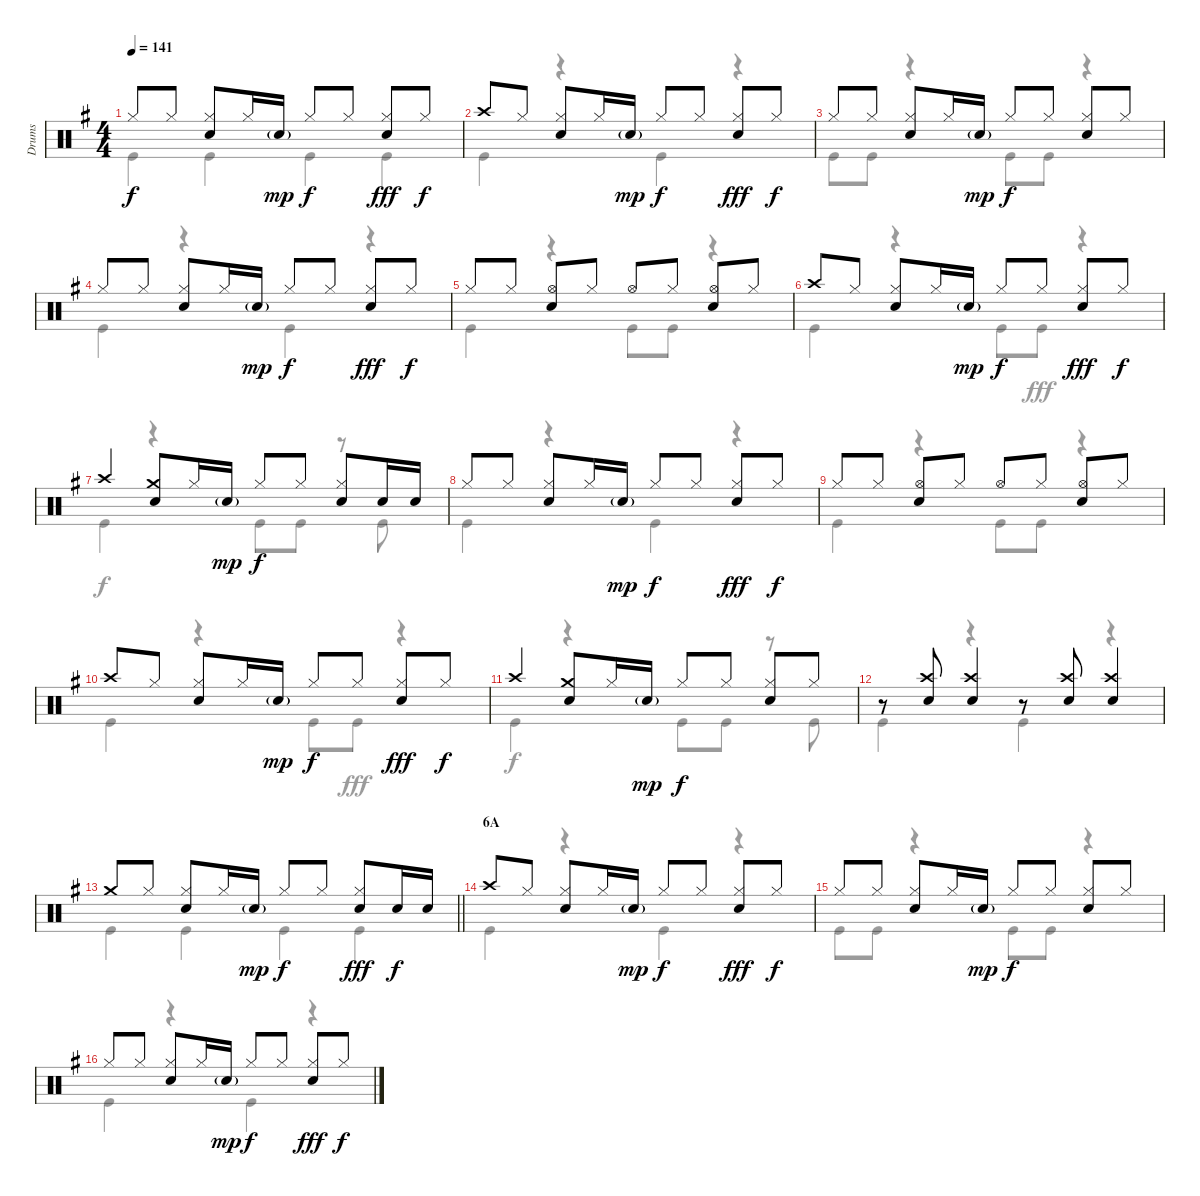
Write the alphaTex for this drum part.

\track ("Drums" "Drums") {instrument percussion}
\staff {score}
\articulation defaults
\voice
\ts (4 4)
\tempo 141
\clef neutral
\ks g "Hi-Hat (closed)".8{dy f} "Hi-Hat (closed)".8
("Hi-Hat (closed)" "Snare (hit) 2").8 "Hi-Hat (closed)".16 "Snare (hit) 2"{g}.16{dy mp} "Hi-Hat (closed)".8{dy f} "Hi-Hat (closed)".8 ("Hi-Hat (closed)" "Snare (hit) 2").8{dy fff} "Hi-Hat (closed)".8{dy f} |
"Crash high (hit)".8 "Hi-Hat (closed)".8 ("Hi-Hat (closed)" "Snare (hit) 2").8 "Hi-Hat (closed)".16 "Snare (hit) 2"{g}.16{dy mp} "Hi-Hat (closed)".8{dy f} "Hi-Hat (closed)".8 ("Hi-Hat (closed)" "Snare (hit) 2").8{dy fff} "Hi-Hat (closed)".8{dy f} |
"Hi-Hat (closed)".8 "Hi-Hat (closed)".8 ("Hi-Hat (closed)" "Snare (hit) 2").8 "Hi-Hat (closed)".16 "Snare (hit) 2"{g}.16{dy mp} "Hi-Hat (closed)".8{dy f} "Hi-Hat (closed)".8 ("Hi-Hat (closed)" "Snare (hit) 2").8 "Hi-Hat (closed)".8 |
"Hi-Hat (closed)".8 "Hi-Hat (closed)".8 ("Hi-Hat (closed)" "Snare (hit) 2").8 "Hi-Hat (closed)".16 "Snare (hit) 2"{g}.16{dy mp} "Hi-Hat (closed)".8{dy f} "Hi-Hat (closed)".8 ("Hi-Hat (closed)" "Snare (hit) 2").8{dy fff} "Hi-Hat (closed)".8{dy f} |
"Hi-Hat (closed)".8 "Hi-Hat (closed)".8 ("Hi-Hat (open)" "Snare (hit) 2").8 "Hi-Hat (closed)".8 "Hi-Hat (open)".8 "Hi-Hat (closed)".8 ("Hi-Hat (open)" "Snare (hit) 2").8 "Hi-Hat (closed)".8 |
"Crash high (hit)".8 "Hi-Hat (closed)".8 ("Hi-Hat (closed)" "Snare (hit) 2").8 "Hi-Hat (closed)".16 "Snare (hit) 2"{g}.16{dy mp} "Hi-Hat (closed)".8{dy f} "Hi-Hat (closed)".8 ("Hi-Hat (closed)" "Snare (hit) 2").8{dy fff} "Hi-Hat (closed)".8{dy f} |
"Crash high (hit)".4 ("Crash medium (hit)" "Snare (hit) 2").8 "Hi-Hat (closed)".16 "Snare (hit) 2"{g}.16{dy mp} "Hi-Hat (closed)".8{dy f} "Hi-Hat (closed)".8 ("Hi-Hat (closed)" "Snare (hit) 2").8 "Snare (hit) 2".16 "Snare (hit) 2".16 |
"Hi-Hat (closed)".8 "Hi-Hat (closed)".8 ("Hi-Hat (closed)" "Snare (hit) 2").8 "Hi-Hat (closed)".16 "Snare (hit) 2"{g}.16{dy mp} "Hi-Hat (closed)".8{dy f} "Hi-Hat (closed)".8 ("Hi-Hat (closed)" "Snare (hit) 2").8{dy fff} "Hi-Hat (closed)".8{dy f} |
"Hi-Hat (closed)".8 "Hi-Hat (closed)".8 ("Hi-Hat (open)" "Snare (hit) 2").8 "Hi-Hat (closed)".8 "Hi-Hat (open)".8 "Hi-Hat (closed)".8 ("Hi-Hat (open)" "Snare (hit) 2").8 "Hi-Hat (closed)".8 |
"Crash high (hit)".8 "Hi-Hat (closed)".8 ("Hi-Hat (closed)" "Snare (hit) 2").8 "Hi-Hat (closed)".16 "Snare (hit) 2"{g}.16{dy mp} "Hi-Hat (closed)".8{dy f} "Hi-Hat (closed)".8 ("Hi-Hat (closed)" "Snare (hit) 2").8{dy fff} "Hi-Hat (closed)".8{dy f} |
"Crash high (hit)".4 ("Crash medium (hit)" "Snare (hit) 2").8 "Hi-Hat (closed)".16 "Snare (hit) 2"{g}.16{dy mp} "Hi-Hat (closed)".8{dy f} "Hi-Hat (closed)".8 ("Hi-Hat (closed)" "Snare (hit) 2").8 "Hi-Hat (closed)".8 |
r.8 ("Crash high (hit)" "Snare (hit) 2").8 ("Crash high (hit)" "Snare (hit) 2").4 r.8 ("Crash high (hit)" "Snare (hit) 2").8 ("Crash high (hit)" "Snare (hit) 2").4 |
\barLineRight lightlight "Crash medium (hit)".8 "Hi-Hat (closed)".8
("Hi-Hat (closed)" "Snare (hit) 2").8 "Hi-Hat (closed)".16 "Snare (hit) 2"{g}.16{dy mp} "Hi-Hat (closed)".8{dy f} "Hi-Hat (closed)".8 ("Hi-Hat (closed)" "Snare (hit) 2").8{dy fff} "Snare (hit) 2".16{dy f} "Snare (hit) 2".16 |
\section ("" "6A")
"Crash high (hit)".8 "Hi-Hat (closed)".8 ("Hi-Hat (closed)" "Snare (hit) 2").8 "Hi-Hat (closed)".16 "Snare (hit) 2"{g}.16{dy mp} "Hi-Hat (closed)".8{dy f} "Hi-Hat (closed)".8 ("Hi-Hat (closed)" "Snare (hit) 2").8{dy fff} "Hi-Hat (closed)".8{dy f} |
"Hi-Hat (closed)".8 "Hi-Hat (closed)".8 ("Hi-Hat (closed)" "Snare (hit) 2").8 "Hi-Hat (closed)".16 "Snare (hit) 2"{g}.16{dy mp} "Hi-Hat (closed)".8{dy f} "Hi-Hat (closed)".8 ("Hi-Hat (closed)" "Snare (hit) 2").8 "Hi-Hat (closed)".8 |
"Hi-Hat (closed)".8 "Hi-Hat (closed)".8 ("Hi-Hat (closed)" "Snare (hit) 2").8 "Hi-Hat (closed)".16 "Snare (hit) 2"{g}.16{dy mp} "Hi-Hat (closed)".8{dy f} "Hi-Hat (closed)".8 ("Hi-Hat (closed)" "Snare (hit) 2").8{dy fff} "Hi-Hat (closed)".8{dy f}
\voice
\clef neutral
\ottava regular
\simile none
\ks g "Kick (hit)".4{dy f} "Kick (hit)".4 "Kick (hit)".4 "Kick (hit)".4
|
"Kick (hit)".4 r.4 "Kick (hit)".4 r.4 |
"Kick (hit)".8 "Kick (hit)".8 r.4 "Kick (hit)".8 "Kick (hit)".8 r.4 |
"Kick (hit)".4 r.4 "Kick (hit)".4 r.4 |
"Kick (hit)".4 r.4 "Kick (hit)".8 "Kick (hit)".8 r.4 |
"Kick (hit)".4 r.4 "Kick (hit)".8 "Kick (hit)".8{dy fff} r.4 |
"Kick (hit)".4{dy f} r.4 "Kick (hit)".8 "Kick (hit)".8 r.8 "Kick (hit)".8 |
"Kick (hit)".4 r.4 "Kick (hit)".4 r.4 |
"Kick (hit)".4 r.4 "Kick (hit)".8 "Kick (hit)".8 r.4 |
"Kick (hit)".4 r.4 "Kick (hit)".8 "Kick (hit)".8{dy fff} r.4 |
"Kick (hit)".4{dy f} r.4 "Kick (hit)".8 "Kick (hit)".8 r.8 "Kick (hit)".8 |
"Kick (hit)".4 r.4 "Kick (hit)".4 r.4 |
\barLineRight lightlight "Kick (hit)".4 "Kick (hit)".4 "Kick (hit)".4 "Kick (hit)".4
|
"Kick (hit)".4 r.4 "Kick (hit)".4 r.4 |
"Kick (hit)".8 "Kick (hit)".8 r.4 "Kick (hit)".8 "Kick (hit)".8 r.4 |
"Kick (hit)".4 r.4 "Kick (hit)".4 r.4
